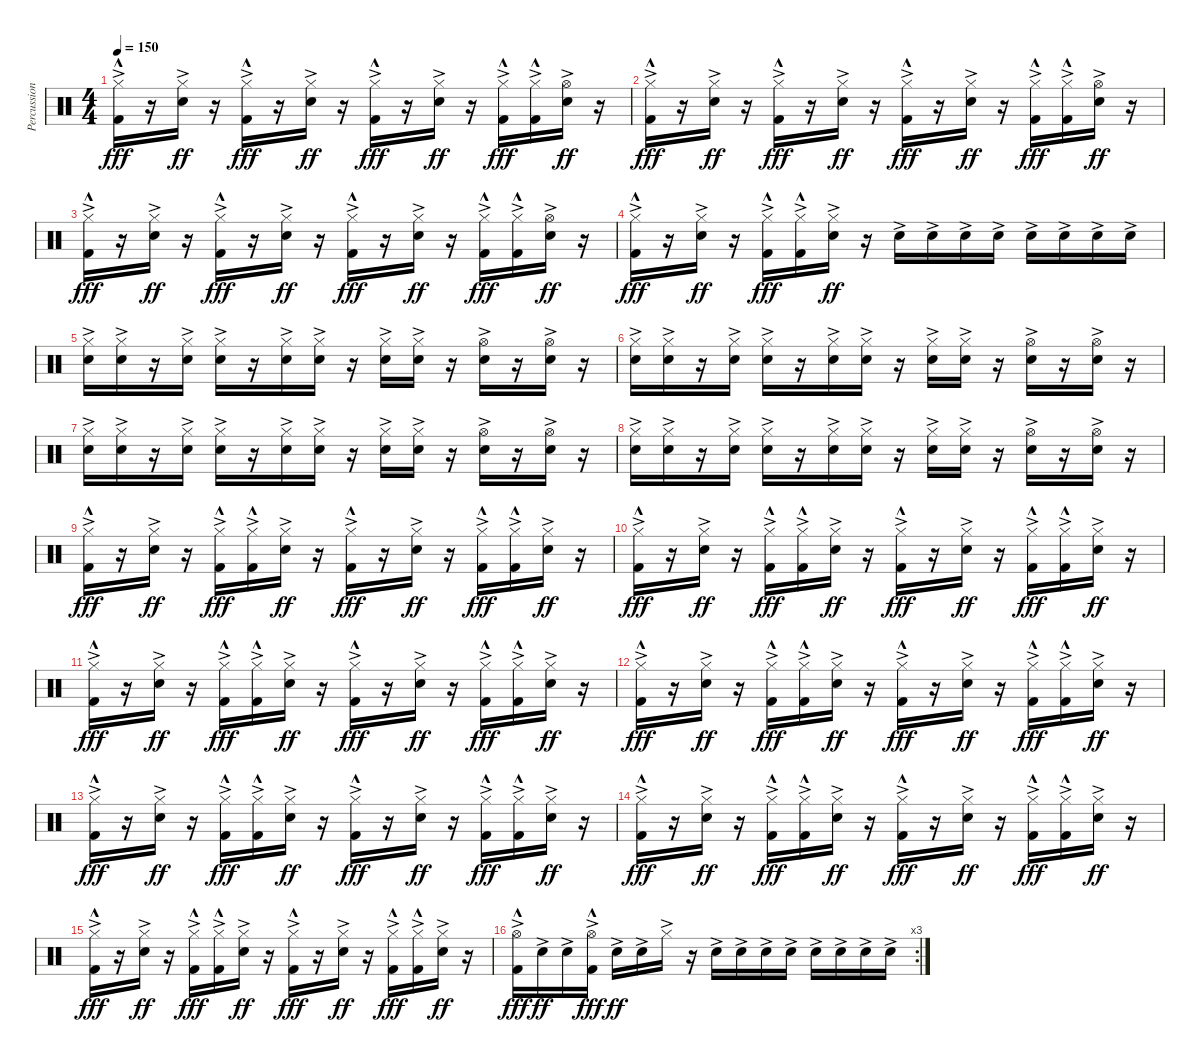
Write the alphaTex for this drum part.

\track ("Percussion" "Percussion") {instrument percussion bank 255}
\staff {score}
\articulation defaults
\ts (4 4)
\tempo 150
\clef neutral
\ks c
("Hi-Hat (closed)"{ac} "Kick (hit) 2"{hac}).16{dy fff} r.16 ("Hi-Hat (closed)"{ac} "Snare (hit) 2"{ac}).16{dy ff} r.16 ("Hi-Hat (closed)"{ac} "Kick (hit) 2"{hac}).16{dy fff} r.16 ("Hi-Hat (closed)"{ac} "Snare (hit) 2"{ac}).16{dy ff} r.16 ("Hi-Hat (closed)"{ac} "Kick (hit) 2"{hac}).16{dy fff} r.16 ("Hi-Hat (closed)"{ac} "Snare (hit) 2"{ac}).16{dy ff} r.16 ("Hi-Hat (closed)"{ac} "Kick (hit) 2"{hac}).16{dy fff} ("Hi-Hat (closed)"{ac} "Kick (hit) 2"{hac}).16 ("Hi-Hat (open)"{ac} "Snare (hit) 2"{ac}).16{dy ff} r.16 |
("Hi-Hat (closed)"{ac} "Kick (hit) 2"{hac}).16{dy fff} r.16 ("Hi-Hat (closed)"{ac} "Snare (hit) 2"{ac}).16{dy ff} r.16 ("Hi-Hat (closed)"{ac} "Kick (hit) 2"{hac}).16{dy fff} r.16 ("Hi-Hat (closed)"{ac} "Snare (hit) 2"{ac}).16{dy ff} r.16 ("Hi-Hat (closed)"{ac} "Kick (hit) 2"{hac}).16{dy fff} r.16 ("Hi-Hat (closed)"{ac} "Snare (hit) 2"{ac}).16{dy ff} r.16 ("Hi-Hat (closed)"{ac} "Kick (hit) 2"{hac}).16{dy fff} ("Hi-Hat (closed)"{ac} "Kick (hit) 2"{hac}).16 ("Hi-Hat (open)"{ac} "Snare (hit) 2"{ac}).16{dy ff} r.16 |
("Hi-Hat (closed)"{ac} "Kick (hit) 2"{hac}).16{dy fff} r.16 ("Hi-Hat (closed)"{ac} "Snare (hit) 2"{ac}).16{dy ff} r.16 ("Hi-Hat (closed)"{ac} "Kick (hit) 2"{hac}).16{dy fff} r.16 ("Hi-Hat (closed)"{ac} "Snare (hit) 2"{ac}).16{dy ff} r.16 ("Hi-Hat (closed)"{ac} "Kick (hit) 2"{hac}).16{dy fff} r.16 ("Hi-Hat (closed)"{ac} "Snare (hit) 2"{ac}).16{dy ff} r.16 ("Hi-Hat (closed)"{ac} "Kick (hit) 2"{hac}).16{dy fff} ("Hi-Hat (closed)"{ac} "Kick (hit) 2"{hac}).16 ("Hi-Hat (open)"{ac} "Snare (hit) 2"{ac}).16{dy ff} r.16 |
("Hi-Hat (closed)"{ac} "Kick (hit) 2"{hac}).16{dy fff} r.16 ("Hi-Hat (closed)"{ac} "Snare (hit) 2"{ac}).16{dy ff} r.16 ("Hi-Hat (closed)"{ac} "Kick (hit) 2"{hac}).16{dy fff} ("Hi-Hat (closed)"{ac} "Kick (hit) 2"{hac}).16 ("Hi-Hat (closed)"{ac} "Snare (hit) 2"{ac}).16{dy ff} r.16 "Snare (hit) 2"{ac}.16 "Snare (hit) 2"{ac}.16 "Snare (hit) 2"{ac}.16 "Snare (hit) 2"{ac}.16 "Snare (hit) 2"{ac}.16 "Snare (hit) 2"{ac}.16 "Snare (hit) 2"{ac}.16 "Snare (hit) 2"{ac}.16 |
("Hi-Hat (closed)"{ac} "Snare (hit) 2"{ac}).16 ("Hi-Hat (closed)"{ac} "Snare (hit) 2"{ac}).16 r.16 ("Hi-Hat (closed)"{ac} "Snare (hit) 2"{ac}).16 ("Hi-Hat (closed)"{ac} "Snare (hit) 2"{ac}).16 r.16 ("Hi-Hat (closed)"{ac} "Snare (hit) 2"{ac}).16 ("Hi-Hat (closed)"{ac} "Snare (hit) 2"{ac}).16 r.16 ("Hi-Hat (closed)"{ac} "Snare (hit) 2"{ac}).16 ("Hi-Hat (closed)"{ac} "Snare (hit) 2"{ac}).16 r.16 ("Hi-Hat (open)"{ac} "Snare (hit) 2"{ac}).16 r.16 ("Hi-Hat (open)"{ac} "Snare (hit) 2"{ac}).16 r.16 |
("Hi-Hat (closed)"{ac} "Snare (hit) 2"{ac}).16 ("Hi-Hat (closed)"{ac} "Snare (hit) 2"{ac}).16 r.16 ("Hi-Hat (closed)"{ac} "Snare (hit) 2"{ac}).16 ("Hi-Hat (closed)"{ac} "Snare (hit) 2"{ac}).16 r.16 ("Hi-Hat (closed)"{ac} "Snare (hit) 2"{ac}).16 ("Hi-Hat (closed)"{ac} "Snare (hit) 2"{ac}).16 r.16 ("Hi-Hat (closed)"{ac} "Snare (hit) 2"{ac}).16 ("Hi-Hat (closed)"{ac} "Snare (hit) 2"{ac}).16 r.16 ("Hi-Hat (open)"{ac} "Snare (hit) 2"{ac}).16 r.16 ("Hi-Hat (open)"{ac} "Snare (hit) 2"{ac}).16 r.16 |
("Hi-Hat (closed)"{ac} "Snare (hit) 2"{ac}).16 ("Hi-Hat (closed)"{ac} "Snare (hit) 2"{ac}).16 r.16 ("Hi-Hat (closed)"{ac} "Snare (hit) 2"{ac}).16 ("Hi-Hat (closed)"{ac} "Snare (hit) 2"{ac}).16 r.16 ("Hi-Hat (closed)"{ac} "Snare (hit) 2"{ac}).16 ("Hi-Hat (closed)"{ac} "Snare (hit) 2"{ac}).16 r.16 ("Hi-Hat (closed)"{ac} "Snare (hit) 2"{ac}).16 ("Hi-Hat (closed)"{ac} "Snare (hit) 2"{ac}).16 r.16 ("Hi-Hat (open)"{ac} "Snare (hit) 2"{ac}).16 r.16 ("Hi-Hat (open)"{ac} "Snare (hit) 2"{ac}).16 r.16 |
("Hi-Hat (closed)"{ac} "Snare (hit) 2"{ac}).16 ("Hi-Hat (closed)"{ac} "Snare (hit) 2"{ac}).16 r.16 ("Hi-Hat (closed)"{ac} "Snare (hit) 2"{ac}).16 ("Hi-Hat (closed)"{ac} "Snare (hit) 2"{ac}).16 r.16 ("Hi-Hat (closed)"{ac} "Snare (hit) 2"{ac}).16 ("Hi-Hat (closed)"{ac} "Snare (hit) 2"{ac}).16 r.16 ("Hi-Hat (closed)"{ac} "Snare (hit) 2"{ac}).16 ("Hi-Hat (closed)"{ac} "Snare (hit) 2"{ac}).16 r.16 ("Hi-Hat (open)"{ac} "Snare (hit) 2"{ac}).16 r.16 ("Hi-Hat (open)"{ac} "Snare (hit) 2"{ac}).16 r.16 |
("Hi-Hat (closed)"{ac} "Kick (hit) 2"{hac}).16{dy fff} r.16 ("Hi-Hat (closed)"{ac} "Snare (hit) 2"{ac}).16{dy ff} r.16 ("Hi-Hat (closed)"{ac} "Kick (hit) 2"{hac}).16{dy fff} ("Hi-Hat (closed)"{ac} "Kick (hit) 2"{hac}).16 ("Hi-Hat (closed)"{ac} "Snare (hit) 2"{ac}).16{dy ff} r.16 ("Hi-Hat (closed)"{ac} "Kick (hit) 2"{hac}).16{dy fff} r.16 ("Hi-Hat (closed)"{ac} "Snare (hit) 2"{ac}).16{dy ff} r.16 ("Hi-Hat (closed)"{ac} "Kick (hit) 2"{hac}).16{dy fff} ("Hi-Hat (closed)"{ac} "Kick (hit) 2"{hac}).16 ("Hi-Hat (closed)"{ac} "Snare (hit) 2"{ac}).16{dy ff} r.16 |
("Hi-Hat (closed)"{ac} "Kick (hit) 2"{hac}).16{dy fff} r.16 ("Hi-Hat (closed)"{ac} "Snare (hit) 2"{ac}).16{dy ff} r.16 ("Hi-Hat (closed)"{ac} "Kick (hit) 2"{hac}).16{dy fff} ("Hi-Hat (closed)"{ac} "Kick (hit) 2"{hac}).16 ("Hi-Hat (closed)"{ac} "Snare (hit) 2"{ac}).16{dy ff} r.16 ("Hi-Hat (closed)"{ac} "Kick (hit) 2"{hac}).16{dy fff} r.16 ("Hi-Hat (closed)"{ac} "Snare (hit) 2"{ac}).16{dy ff} r.16 ("Hi-Hat (closed)"{ac} "Kick (hit) 2"{hac}).16{dy fff} ("Hi-Hat (closed)"{ac} "Kick (hit) 2"{hac}).16 ("Hi-Hat (closed)"{ac} "Snare (hit) 2"{ac}).16{dy ff} r.16 |
("Hi-Hat (closed)"{ac} "Kick (hit) 2"{hac}).16{dy fff} r.16 ("Hi-Hat (closed)"{ac} "Snare (hit) 2"{ac}).16{dy ff} r.16 ("Hi-Hat (closed)"{ac} "Kick (hit) 2"{hac}).16{dy fff} ("Hi-Hat (closed)"{ac} "Kick (hit) 2"{hac}).16 ("Hi-Hat (closed)"{ac} "Snare (hit) 2"{ac}).16{dy ff} r.16 ("Hi-Hat (closed)"{ac} "Kick (hit) 2"{hac}).16{dy fff} r.16 ("Hi-Hat (closed)"{ac} "Snare (hit) 2"{ac}).16{dy ff} r.16 ("Hi-Hat (closed)"{ac} "Kick (hit) 2"{hac}).16{dy fff} ("Hi-Hat (closed)"{ac} "Kick (hit) 2"{hac}).16 ("Hi-Hat (closed)"{ac} "Snare (hit) 2"{ac}).16{dy ff} r.16 |
("Hi-Hat (closed)"{ac} "Kick (hit) 2"{hac}).16{dy fff} r.16 ("Hi-Hat (closed)"{ac} "Snare (hit) 2"{ac}).16{dy ff} r.16 ("Hi-Hat (closed)"{ac} "Kick (hit) 2"{hac}).16{dy fff} ("Hi-Hat (closed)"{ac} "Kick (hit) 2"{hac}).16 ("Hi-Hat (closed)"{ac} "Snare (hit) 2"{ac}).16{dy ff} r.16 ("Hi-Hat (closed)"{ac} "Kick (hit) 2"{hac}).16{dy fff} r.16 ("Hi-Hat (closed)"{ac} "Snare (hit) 2"{ac}).16{dy ff} r.16 ("Hi-Hat (closed)"{ac} "Kick (hit) 2"{hac}).16{dy fff} ("Hi-Hat (closed)"{ac} "Kick (hit) 2"{hac}).16 ("Hi-Hat (closed)"{ac} "Snare (hit) 2"{ac}).16{dy ff} r.16 |
("Hi-Hat (closed)"{ac} "Kick (hit) 2"{hac}).16{dy fff} r.16 ("Hi-Hat (closed)"{ac} "Snare (hit) 2"{ac}).16{dy ff} r.16 ("Hi-Hat (closed)"{ac} "Kick (hit) 2"{hac}).16{dy fff} ("Hi-Hat (closed)"{ac} "Kick (hit) 2"{hac}).16 ("Hi-Hat (closed)"{ac} "Snare (hit) 2"{ac}).16{dy ff} r.16 ("Hi-Hat (closed)"{ac} "Kick (hit) 2"{hac}).16{dy fff} r.16 ("Hi-Hat (closed)"{ac} "Snare (hit) 2"{ac}).16{dy ff} r.16 ("Hi-Hat (closed)"{ac} "Kick (hit) 2"{hac}).16{dy fff} ("Hi-Hat (closed)"{ac} "Kick (hit) 2"{hac}).16 ("Hi-Hat (closed)"{ac} "Snare (hit) 2"{ac}).16{dy ff} r.16 |
("Hi-Hat (closed)"{ac} "Kick (hit) 2"{hac}).16{dy fff} r.16 ("Hi-Hat (closed)"{ac} "Snare (hit) 2"{ac}).16{dy ff} r.16 ("Hi-Hat (closed)"{ac} "Kick (hit) 2"{hac}).16{dy fff} ("Hi-Hat (closed)"{ac} "Kick (hit) 2"{hac}).16 ("Hi-Hat (closed)"{ac} "Snare (hit) 2"{ac}).16{dy ff} r.16 ("Hi-Hat (closed)"{ac} "Kick (hit) 2"{hac}).16{dy fff} r.16 ("Hi-Hat (closed)"{ac} "Snare (hit) 2"{ac}).16{dy ff} r.16 ("Hi-Hat (closed)"{ac} "Kick (hit) 2"{hac}).16{dy fff} ("Hi-Hat (closed)"{ac} "Kick (hit) 2"{hac}).16 ("Hi-Hat (closed)"{ac} "Snare (hit) 2"{ac}).16{dy ff} r.16 |
("Hi-Hat (closed)"{ac} "Kick (hit) 2"{hac}).16{dy fff} r.16 ("Hi-Hat (closed)"{ac} "Snare (hit) 2"{ac}).16{dy ff} r.16 ("Hi-Hat (closed)"{ac} "Kick (hit) 2"{hac}).16{dy fff} ("Hi-Hat (closed)"{ac} "Kick (hit) 2"{hac}).16 ("Hi-Hat (closed)"{ac} "Snare (hit) 2"{ac}).16{dy ff} r.16 ("Hi-Hat (closed)"{ac} "Kick (hit) 2"{hac}).16{dy fff} r.16 ("Hi-Hat (closed)"{ac} "Snare (hit) 2"{ac}).16{dy ff} r.16 ("Hi-Hat (closed)"{ac} "Kick (hit) 2"{hac}).16{dy fff} ("Hi-Hat (closed)"{ac} "Kick (hit) 2"{hac}).16 ("Hi-Hat (closed)"{ac} "Snare (hit) 2"{ac}).16{dy ff} r.16 |
\rc 3
("Hi-Hat (open)"{ac} "Kick (hit) 2"{hac}).16{dy fff} "Snare (hit) 2"{ac}.16{dy ff} "Snare (hit) 2"{ac}.16 ("Hi-Hat (open)"{ac} "Kick (hit) 2"{hac}).16{dy fff} "Snare (hit) 2"{ac}.16{dy ff} "Snare (hit) 2"{ac}.16 "Hi-Hat (closed)"{ac}.16 r.16 "Snare (hit) 2"{ac}.16 "Snare (hit) 2"{ac}.16 "Snare (hit) 2"{ac}.16 "Snare (hit) 2"{ac}.16 "Snare (hit) 2"{ac}.16 "Snare (hit) 2"{ac}.16 "Snare (hit) 2"{ac}.16 "Snare (hit) 2"{ac}.16
